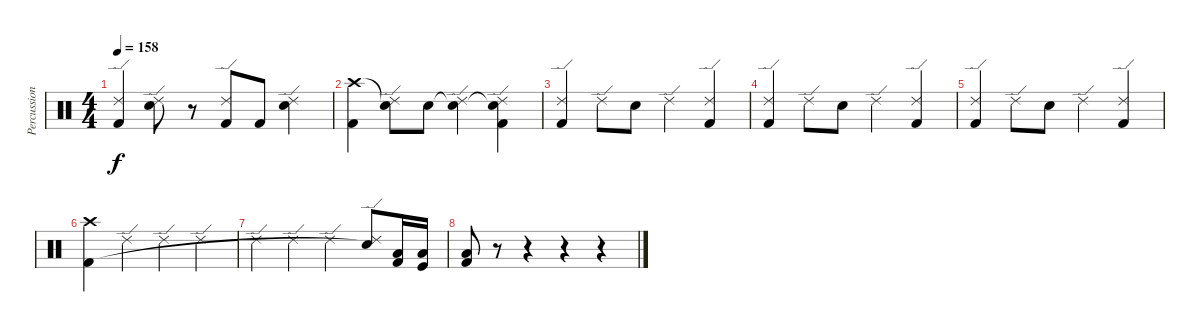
\track ("Percussion" "Percussion") {instrument percussion}
\staff {score}
\articulation defaults
\ts (4 4)
\tempo 158
\clef neutral
\ks c
("Ride (edge) 2" "Kick (hit) 2").4{dy f} ("Ride (edge) 2" "Snare (hit) 2").8 r.8 ("Ride (edge) 2" "Kick (hit) 2").8 "Kick (hit) 2".8 ("Ride (edge) 2" "Snare (hit) 2").4 |
("Crash high (hit)" "Kick (hit) 2").4 ("Snare (hit)"{t} "Ride (edge) 2").8 "Snare (hit) 2".8 ("Snare (hit)"{t} "Ride (edge) 2").4 ("Snare (hit)"{t} "Ride (edge) 2" "Kick (hit) 2").4 |
("Ride (edge) 2" "Kick (hit) 2").4 "Ride (edge) 2".8 "Snare (hit) 2".8 "Ride (edge) 2".4 ("Ride (edge) 2" "Kick (hit) 2").4 |
("Ride (edge) 2" "Kick (hit) 2").4 "Ride (edge) 2".8 "Snare (hit) 2".8 "Ride (edge) 2".4 ("Ride (edge) 2" "Kick (hit) 2").4 |
("Ride (edge) 2" "Kick (hit) 2").4 "Ride (edge) 2".8 "Snare (hit) 2".8 "Ride (edge) 2".4 ("Ride (edge) 2" "Kick (hit) 2").4 |
("Crash high (hit)" "Kick (hit) 2").4 "Ride (edge) 2".4 "Ride (edge) 2".4 "Ride (edge) 2".4 |
"Ride (edge) 2".4 "Ride (edge) 2".4 "Ride (edge) 2".4 ("Ride (edge) 2" "Snare (hit)"{t}).8 ("Low Tom (hit)" "Kick (hit) 2").16 ("Low Tom (hit)" "Kick (hit)").16 |
("Low Tom (hit)" "Kick (hit) 2").8 r.8 r.4 r.4 r.4
